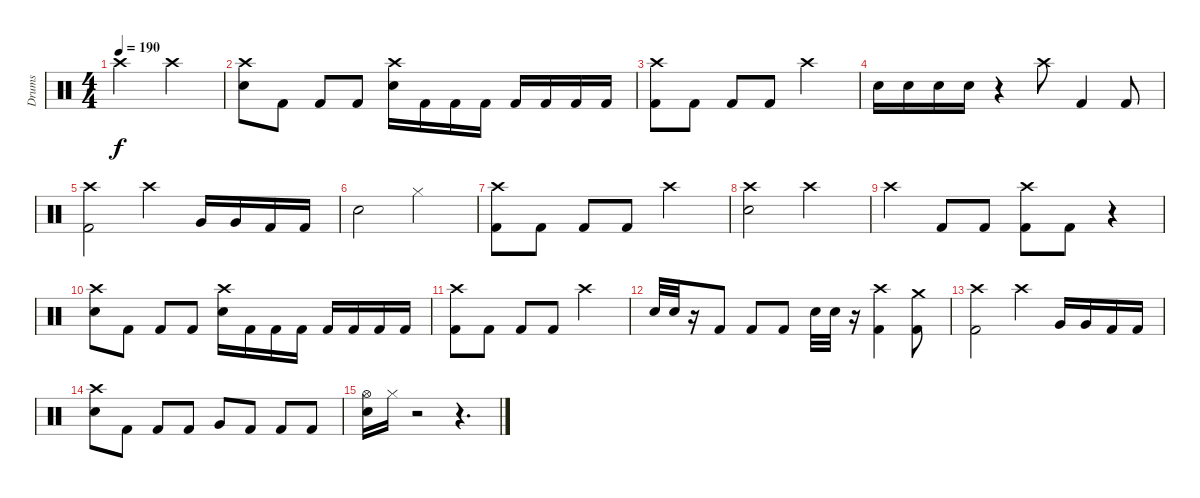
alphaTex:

\track ("Drums" "Drums") {instrument percussion}
\staff {score}
\articulation defaults
\ts (4 4)
\tempo 190
\clef neutral
\ks c "Crash high (hit)".2{dy f} "Crash high (hit)".2
|
("Crash high (hit)" "Electric Snare (hit)").8 "Kick (hit) 2".8 "Kick (hit) 2".8 "Kick (hit) 2".8 ("Crash high (hit)" "Electric Snare (hit)").16 "Kick (hit) 2".16 "Kick (hit) 2".16 "Kick (hit) 2".16 "Kick (hit) 2".16 "Kick (hit) 2".16 "Kick (hit) 2".16 "Kick (hit) 2".16 |
("Crash high (hit)" "Kick (hit) 2").8 "Kick (hit) 2".8 "Kick (hit) 2".8 "Kick (hit) 2".8 "Crash high (hit)".2 |
"Electric Snare (hit)".16 "Electric Snare (hit)".16 "Electric Snare (hit)".16 "Electric Snare (hit)".16 r.4 "Crash high (hit)".8 "Kick (hit) 2".4 "Kick (hit) 2".8 |
("Crash high (hit)" "Kick (hit) 2").2 "Crash high (hit)".4 "Very Low Tom (hit)".16 "Very Low Tom (hit)".16 "Kick (hit) 2".16 "Kick (hit) 2".16 |
"Electric Snare (hit)".2 "Hi-Hat (closed)".2 |
("Crash high (hit)" "Kick (hit) 2").8 "Kick (hit) 2".8 "Kick (hit) 2".8 "Kick (hit) 2".8 "Crash high (hit)".2 |
("Crash high (hit)" "Electric Snare (hit)").2 "Crash high (hit)".2 |
"Crash high (hit)".4 "Kick (hit) 2".8 "Kick (hit) 2".8 ("Crash high (hit)" "Kick (hit) 2").8 "Kick (hit) 2".8 r.4 |
("Crash high (hit)" "Electric Snare (hit)").8 "Kick (hit) 2".8 "Kick (hit) 2".8 "Kick (hit) 2".8 ("Crash high (hit)" "Electric Snare (hit)").16 "Kick (hit) 2".16 "Kick (hit) 2".16 "Kick (hit) 2".16 "Kick (hit) 2".16 "Kick (hit) 2".16 "Kick (hit) 2".16 "Kick (hit) 2".16 |
("Crash high (hit)" "Kick (hit) 2").8 "Kick (hit) 2".8 "Kick (hit) 2".8 "Kick (hit) 2".8 "Crash high (hit)".2 |
"Electric Snare (hit)".32 "Electric Snare (hit)".32 r.16 "Kick (hit) 2".8 "Kick (hit) 2".8 "Kick (hit) 2".8 "Electric Snare (hit)".32 "Electric Snare (hit)".32 r.16 ("Crash high (hit)" "Kick (hit) 2").4 ("Crash medium (hit)" "Kick (hit) 2").8 |
("Crash high (hit)" "Kick (hit) 2").2 "Crash high (hit)".4 "Very Low Tom (hit)".16 "Very Low Tom (hit)".16 "Kick (hit) 2".16 "Kick (hit) 2".16 |
("Crash high (hit)" "Electric Snare (hit)").8 "Kick (hit) 2".8 "Kick (hit) 2".8 "Kick (hit) 2".8 "Very Low Tom (hit)".8 "Kick (hit) 2".8 "Kick (hit) 2".8 "Kick (hit) 2".8 |
("Hi-Hat (open)" "Electric Snare (hit)").16 "Hi-Hat (closed)".16 r.2 r.4{d}
